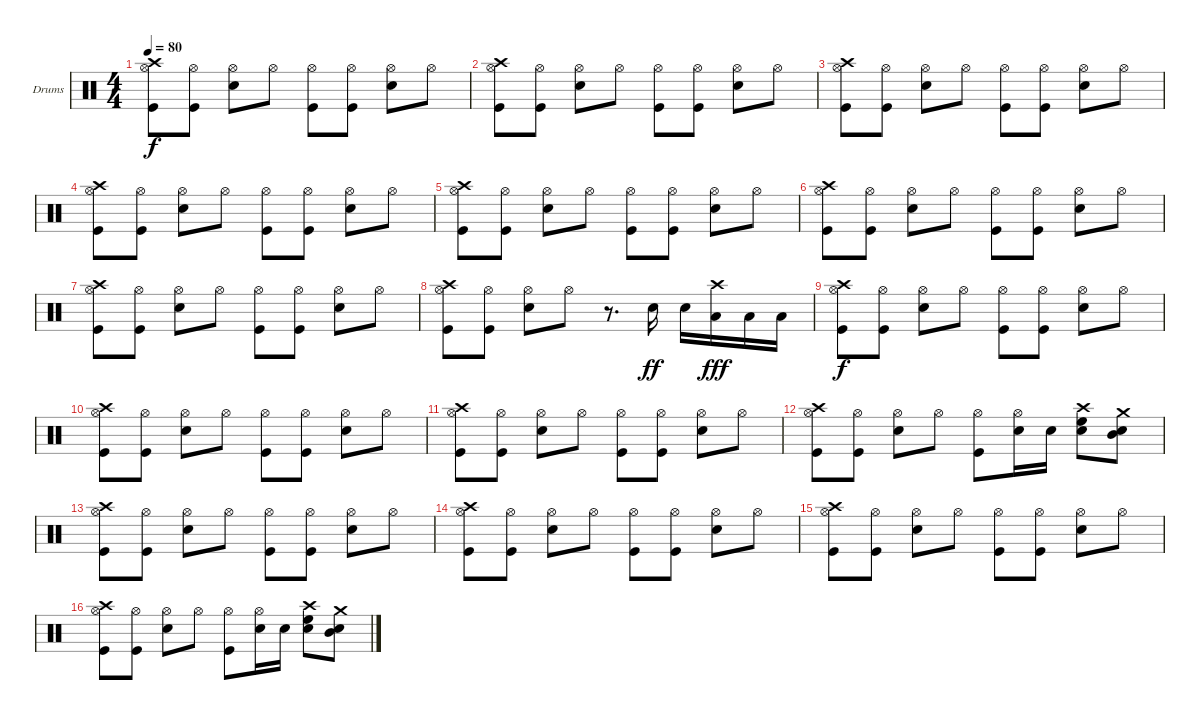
\bracketExtendMode groupsimilarinstruments
\firstSystemTrackNameOrientation horizontal
\otherSystemsTrackNameOrientation horizontal
\track ("Drumkit" "Drums") {instrument percussion}
\staff {score}
\articulation defaults
\ts (4 4)
\tempo 80
\clef neutral
\ks c
("Hi-Hat (open)" "Crash high (hit)" "Kick (hit)").8{dy f} ("Hi-Hat (open)" "Kick (hit)").8 ("Hi-Hat (open)" "Snare (hit) 2").8 "Hi-Hat (open)".8 ("Hi-Hat (open)" "Kick (hit)").8 ("Hi-Hat (open)" "Kick (hit)").8 ("Hi-Hat (open)" "Snare (hit) 2").8 "Hi-Hat (open)".8 |
("Hi-Hat (open)" "Crash high (hit)" "Kick (hit)").8 ("Hi-Hat (open)" "Kick (hit)").8 ("Hi-Hat (open)" "Snare (hit) 2").8 "Hi-Hat (open)".8 ("Hi-Hat (open)" "Kick (hit)").8 ("Hi-Hat (open)" "Kick (hit)").8 ("Hi-Hat (open)" "Snare (hit) 2").8 "Hi-Hat (open)".8 |
("Hi-Hat (open)" "Crash high (hit)" "Kick (hit)").8 ("Hi-Hat (open)" "Kick (hit)").8 ("Hi-Hat (open)" "Snare (hit) 2").8 "Hi-Hat (open)".8 ("Hi-Hat (open)" "Kick (hit)").8 ("Hi-Hat (open)" "Kick (hit)").8 ("Hi-Hat (open)" "Snare (hit) 2").8 "Hi-Hat (open)".8 |
("Hi-Hat (open)" "Crash high (hit)" "Kick (hit)").8 ("Hi-Hat (open)" "Kick (hit)").8 ("Hi-Hat (open)" "Snare (hit) 2").8 "Hi-Hat (open)".8 ("Hi-Hat (open)" "Kick (hit)").8 ("Hi-Hat (open)" "Kick (hit)").8 ("Hi-Hat (open)" "Snare (hit) 2").8 "Hi-Hat (open)".8 |
("Hi-Hat (open)" "Crash high (hit)" "Kick (hit)").8 ("Hi-Hat (open)" "Kick (hit)").8 ("Hi-Hat (open)" "Snare (hit) 2").8 "Hi-Hat (open)".8 ("Hi-Hat (open)" "Kick (hit)").8 ("Hi-Hat (open)" "Kick (hit)").8 ("Hi-Hat (open)" "Snare (hit) 2").8 "Hi-Hat (open)".8 |
("Hi-Hat (open)" "Crash high (hit)" "Kick (hit)").8 ("Hi-Hat (open)" "Kick (hit)").8 ("Hi-Hat (open)" "Snare (hit) 2").8 "Hi-Hat (open)".8 ("Hi-Hat (open)" "Kick (hit)").8 ("Hi-Hat (open)" "Kick (hit)").8 ("Hi-Hat (open)" "Snare (hit) 2").8 "Hi-Hat (open)".8 |
("Hi-Hat (open)" "Crash high (hit)" "Kick (hit)").8 ("Hi-Hat (open)" "Kick (hit)").8 ("Hi-Hat (open)" "Snare (hit) 2").8 "Hi-Hat (open)".8 ("Hi-Hat (open)" "Kick (hit)").8 ("Hi-Hat (open)" "Kick (hit)").8 ("Hi-Hat (open)" "Snare (hit) 2").8 "Hi-Hat (open)".8 |
("Hi-Hat (open)" "Crash high (hit)" "Kick (hit)").8 ("Hi-Hat (open)" "Kick (hit)").8 ("Hi-Hat (open)" "Snare (hit) 2").8 "Hi-Hat (open)".8 r.8{d} "Snare (hit) 2".16{dy ff} "Snare (hit) 2".16 ("Crash high (hit)" "Low Tom (hit)").16{dy fff} "Low Tom (hit)".16 "Low Tom (hit)".16 |
("Hi-Hat (open)" "Crash high (hit)" "Kick (hit)").8{dy f} ("Hi-Hat (open)" "Kick (hit)").8 ("Hi-Hat (open)" "Snare (hit) 2").8 "Hi-Hat (open)".8 ("Hi-Hat (open)" "Kick (hit)").8 ("Hi-Hat (open)" "Kick (hit)").8 ("Hi-Hat (open)" "Snare (hit) 2").8 "Hi-Hat (open)".8 |
("Hi-Hat (open)" "Crash high (hit)" "Kick (hit)").8 ("Hi-Hat (open)" "Kick (hit)").8 ("Hi-Hat (open)" "Snare (hit) 2").8 "Hi-Hat (open)".8 ("Hi-Hat (open)" "Kick (hit)").8 ("Hi-Hat (open)" "Kick (hit)").8 ("Hi-Hat (open)" "Snare (hit) 2").8 "Hi-Hat (open)".8 |
("Hi-Hat (open)" "Crash high (hit)" "Kick (hit)").8 ("Hi-Hat (open)" "Kick (hit)").8 ("Hi-Hat (open)" "Snare (hit) 2").8 "Hi-Hat (open)".8 ("Hi-Hat (open)" "Kick (hit)").8 ("Hi-Hat (open)" "Kick (hit)").8 ("Hi-Hat (open)" "Snare (hit) 2").8 "Hi-Hat (open)".8 |
("Hi-Hat (open)" "Crash high (hit)" "Kick (hit)").8 ("Hi-Hat (open)" "Kick (hit)").8 ("Hi-Hat (open)" "Snare (hit) 2").8 "Hi-Hat (open)".8 ("Hi-Hat (open)" "Kick (hit)").8 ("Hi-Hat (open)" "Snare (hit) 2").16 "Snare (hit) 2".16 ("Crash high (hit)" "High Floor Tom (hit)" "Snare (hit) 2").8 ("Crash medium (hit)" "Mid Tom (hit)" "Snare (hit) 2").8 |
("Hi-Hat (open)" "Crash high (hit)" "Kick (hit)").8 ("Hi-Hat (open)" "Kick (hit)").8 ("Hi-Hat (open)" "Snare (hit) 2").8 "Hi-Hat (open)".8 ("Hi-Hat (open)" "Kick (hit)").8 ("Hi-Hat (open)" "Kick (hit)").8 ("Hi-Hat (open)" "Snare (hit) 2").8 "Hi-Hat (open)".8 |
("Hi-Hat (open)" "Crash high (hit)" "Kick (hit)").8 ("Hi-Hat (open)" "Kick (hit)").8 ("Hi-Hat (open)" "Snare (hit) 2").8 "Hi-Hat (open)".8 ("Hi-Hat (open)" "Kick (hit)").8 ("Hi-Hat (open)" "Kick (hit)").8 ("Hi-Hat (open)" "Snare (hit) 2").8 "Hi-Hat (open)".8 |
("Hi-Hat (open)" "Crash high (hit)" "Kick (hit)").8 ("Hi-Hat (open)" "Kick (hit)").8 ("Hi-Hat (open)" "Snare (hit) 2").8 "Hi-Hat (open)".8 ("Hi-Hat (open)" "Kick (hit)").8 ("Hi-Hat (open)" "Kick (hit)").8 ("Hi-Hat (open)" "Snare (hit) 2").8 "Hi-Hat (open)".8 |
("Hi-Hat (open)" "Crash high (hit)" "Kick (hit)").8 ("Hi-Hat (open)" "Kick (hit)").8 ("Hi-Hat (open)" "Snare (hit) 2").8 "Hi-Hat (open)".8 ("Hi-Hat (open)" "Kick (hit)").8 ("Hi-Hat (open)" "Snare (hit) 2").16 "Snare (hit) 2".16 ("Crash high (hit)" "High Floor Tom (hit)" "Snare (hit) 2").8 ("Crash medium (hit)" "Mid Tom (hit)" "Snare (hit) 2").8
